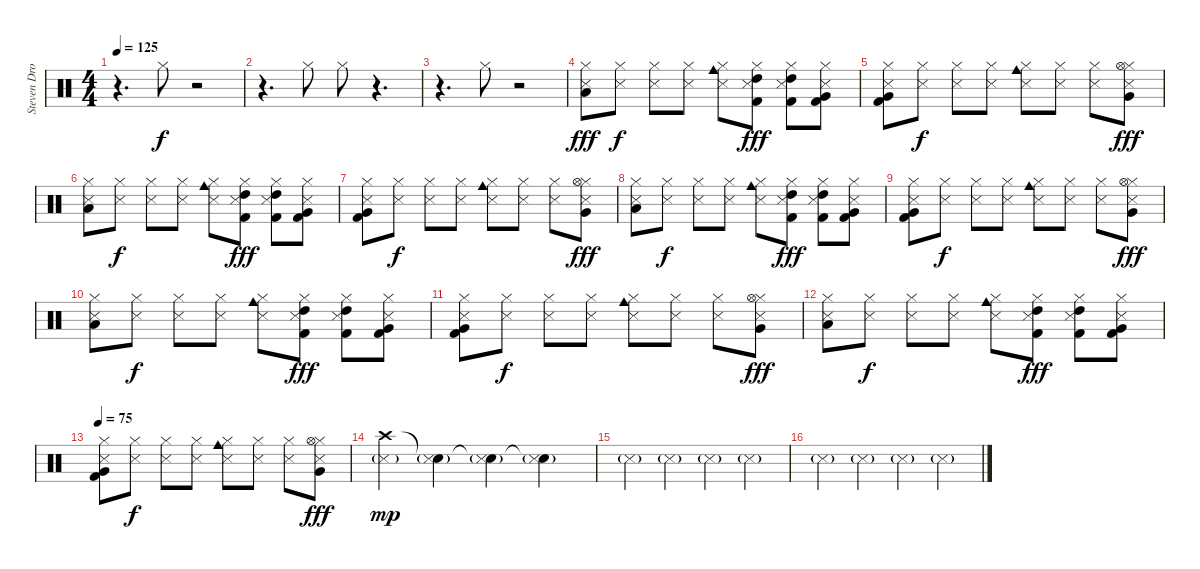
\track ("Steven Drozd (Drums)" "Steven Dro") {instrument percussion}
\staff {score}
\articulation defaults
\ts (4 4)
\tempo 125
\clef neutral
\ks c
r.4{d dy f} "Hi-Hat (closed)".8 r.2 |
r.4{d} "Hi-Hat (closed)".8 "Hi-Hat (closed)".8 r.4{d} |
r.4{d} "Hi-Hat (closed)".8 r.2 |
("Hi-Hat (closed)" "Metronome (hit)" "Low Floor Tom (hit)").8{dy fff} ("Hi-Hat (closed)" "Metronome (hit)").8{dy f} ("Hi-Hat (closed)" "Metronome (hit)").8 ("Hi-Hat (closed)" "Metronome (hit)").8 ("Hi-Hat (closed)" "Metronome (hit)" "Cowbell medium (hit)").8 ("Hi-Hat (closed)" "Metronome (hit)" "High Tom (hit)" "Kick (hit) 2").8{dy fff} ("Hi-Hat (closed)" "Metronome (hit)" "High Tom (hit)" "Kick (hit) 2").8 ("Hi-Hat (closed)" "Metronome (hit)" "Very Low Tom (hit)" "Kick (hit) 2").8 |
("Hi-Hat (closed)" "Metronome (hit)" "Very Low Tom (hit)" "Kick (hit) 2").8 ("Hi-Hat (closed)" "Metronome (hit)").8{dy f} ("Hi-Hat (closed)" "Metronome (hit)").8 ("Hi-Hat (closed)" "Metronome (hit)").8 ("Hi-Hat (closed)" "Metronome (hit)" "Cowbell medium (hit)").8 ("Hi-Hat (closed)" "Metronome (hit)").8 ("Hi-Hat (closed)" "Metronome (hit)").8 ("Hi-Hat (closed)" "Metronome (hit)" "Hi-Hat (open)" "Very Low Tom (hit)").8{dy fff} |
("Hi-Hat (closed)" "Metronome (hit)" "Low Floor Tom (hit)").8 ("Hi-Hat (closed)" "Metronome (hit)").8{dy f} ("Hi-Hat (closed)" "Metronome (hit)").8 ("Hi-Hat (closed)" "Metronome (hit)").8 ("Hi-Hat (closed)" "Metronome (hit)" "Cowbell medium (hit)").8 ("Hi-Hat (closed)" "Metronome (hit)" "High Tom (hit)" "Kick (hit) 2").8{dy fff} ("Hi-Hat (closed)" "Metronome (hit)" "High Tom (hit)" "Kick (hit) 2").8 ("Hi-Hat (closed)" "Metronome (hit)" "Very Low Tom (hit)" "Kick (hit) 2").8 |
("Hi-Hat (closed)" "Metronome (hit)" "Very Low Tom (hit)" "Kick (hit) 2").8 ("Hi-Hat (closed)" "Metronome (hit)").8{dy f} ("Hi-Hat (closed)" "Metronome (hit)").8 ("Hi-Hat (closed)" "Metronome (hit)").8 ("Hi-Hat (closed)" "Metronome (hit)" "Cowbell medium (hit)").8 ("Hi-Hat (closed)" "Metronome (hit)").8 ("Hi-Hat (closed)" "Metronome (hit)").8 ("Hi-Hat (closed)" "Metronome (hit)" "Hi-Hat (open)" "Very Low Tom (hit)").8{dy fff} |
("Hi-Hat (closed)" "Metronome (hit)" "Low Floor Tom (hit)").8 ("Hi-Hat (closed)" "Metronome (hit)").8{dy f} ("Hi-Hat (closed)" "Metronome (hit)").8 ("Hi-Hat (closed)" "Metronome (hit)").8 ("Hi-Hat (closed)" "Metronome (hit)" "Cowbell medium (hit)").8 ("Hi-Hat (closed)" "Metronome (hit)" "High Tom (hit)" "Kick (hit) 2").8{dy fff} ("Hi-Hat (closed)" "Metronome (hit)" "High Tom (hit)" "Kick (hit) 2").8 ("Hi-Hat (closed)" "Metronome (hit)" "Very Low Tom (hit)" "Kick (hit) 2").8 |
("Hi-Hat (closed)" "Metronome (hit)" "Very Low Tom (hit)" "Kick (hit) 2").8 ("Hi-Hat (closed)" "Metronome (hit)").8{dy f} ("Hi-Hat (closed)" "Metronome (hit)").8 ("Hi-Hat (closed)" "Metronome (hit)").8 ("Hi-Hat (closed)" "Metronome (hit)" "Cowbell medium (hit)").8 ("Hi-Hat (closed)" "Metronome (hit)").8 ("Hi-Hat (closed)" "Metronome (hit)").8 ("Hi-Hat (closed)" "Metronome (hit)" "Hi-Hat (open)" "Very Low Tom (hit)").8{dy fff} |
("Hi-Hat (closed)" "Metronome (hit)" "Low Floor Tom (hit)").8 ("Hi-Hat (closed)" "Metronome (hit)").8{dy f} ("Hi-Hat (closed)" "Metronome (hit)").8 ("Hi-Hat (closed)" "Metronome (hit)").8 ("Hi-Hat (closed)" "Metronome (hit)" "Cowbell medium (hit)").8 ("Hi-Hat (closed)" "Metronome (hit)" "High Tom (hit)" "Kick (hit) 2").8{dy fff} ("Hi-Hat (closed)" "Metronome (hit)" "High Tom (hit)" "Kick (hit) 2").8 ("Hi-Hat (closed)" "Metronome (hit)" "Very Low Tom (hit)" "Kick (hit) 2").8 |
("Hi-Hat (closed)" "Metronome (hit)" "Very Low Tom (hit)" "Kick (hit) 2").8 ("Hi-Hat (closed)" "Metronome (hit)").8{dy f} ("Hi-Hat (closed)" "Metronome (hit)").8 ("Hi-Hat (closed)" "Metronome (hit)").8 ("Hi-Hat (closed)" "Metronome (hit)" "Cowbell medium (hit)").8 ("Hi-Hat (closed)" "Metronome (hit)").8 ("Hi-Hat (closed)" "Metronome (hit)").8 ("Hi-Hat (closed)" "Metronome (hit)" "Hi-Hat (open)" "Very Low Tom (hit)").8{dy fff} |
("Hi-Hat (closed)" "Metronome (hit)" "Low Floor Tom (hit)").8 ("Hi-Hat (closed)" "Metronome (hit)").8{dy f} ("Hi-Hat (closed)" "Metronome (hit)").8 ("Hi-Hat (closed)" "Metronome (hit)").8 ("Hi-Hat (closed)" "Metronome (hit)" "Cowbell medium (hit)").8 ("Hi-Hat (closed)" "Metronome (hit)" "High Tom (hit)" "Kick (hit) 2").8{dy fff} ("Hi-Hat (closed)" "Metronome (hit)" "High Tom (hit)" "Kick (hit) 2").8 ("Hi-Hat (closed)" "Metronome (hit)" "Very Low Tom (hit)" "Kick (hit) 2").8 |
\tempo 75
("Hi-Hat (closed)" "Metronome (hit)" "Very Low Tom (hit)" "Kick (hit) 2").8 ("Hi-Hat (closed)" "Metronome (hit)").8{dy f} ("Hi-Hat (closed)" "Metronome (hit)").8 ("Hi-Hat (closed)" "Metronome (hit)").8 ("Hi-Hat (closed)" "Metronome (hit)" "Cowbell medium (hit)").8 ("Hi-Hat (closed)" "Metronome (hit)").8 ("Hi-Hat (closed)" "Metronome (hit)").8 ("Hi-Hat (closed)" "Metronome (hit)" "Hi-Hat (open)" "Very Low Tom (hit)").8{dy fff} |
("Crash high (hit)" "Metronome (hit)"{g}).4{dy mp} ("Snare (hit)"{t} "Metronome (hit)"{g}).4{balance 0} ("Snare (hit)"{t} "Metronome (hit)"{g}).4 ("Snare (hit)"{t} "Metronome (hit)"{g}).4 |
"Metronome (hit)"{g}.4 "Metronome (hit)"{g}.4 "Metronome (hit)"{g}.4 "Metronome (hit)"{g}.4 |
"Metronome (hit)"{g}.4{volume 1} "Metronome (hit)"{g}.4 "Metronome (hit)"{g}.4 "Metronome (hit)"{g}.4
